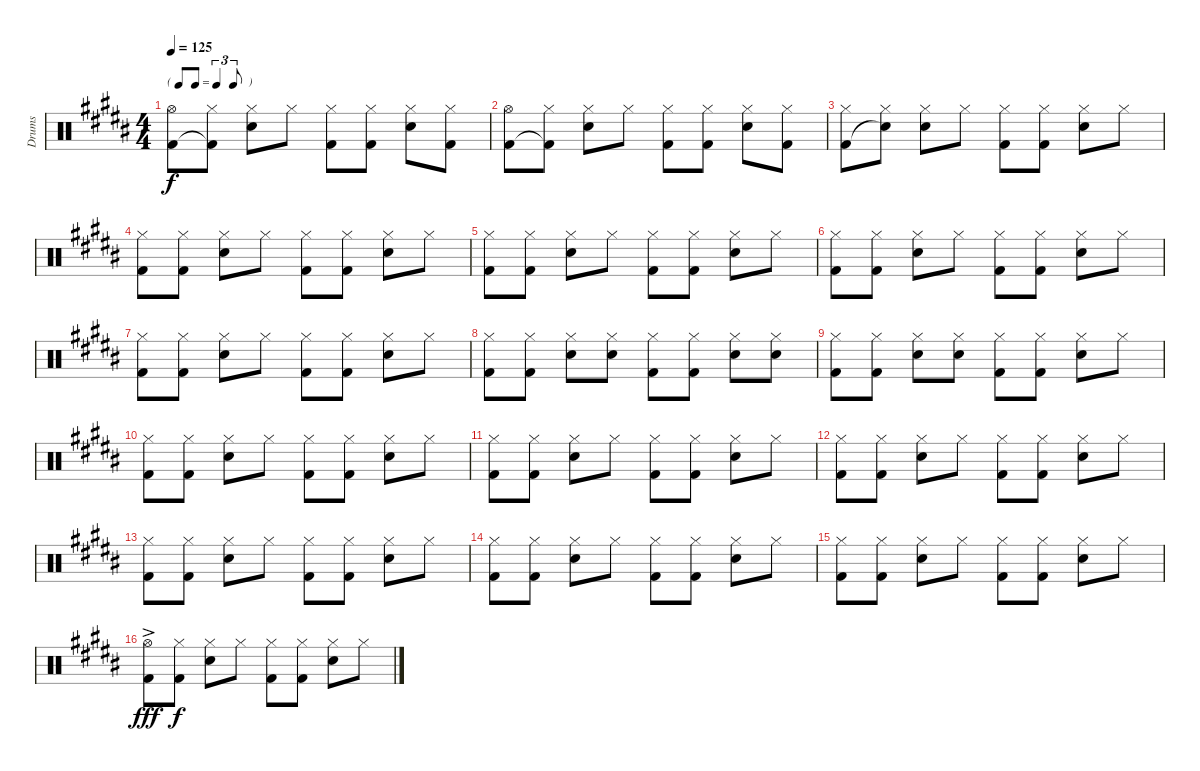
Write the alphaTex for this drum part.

\track ("Drums" "Drums") {instrument percussion}
\staff {score}
\articulation defaults
\ts (4 4)
\tf triplet8th
\tempo 125
\clef neutral
\ks b
("Hi-Hat (open)" "Kick (hit) 2").8{dy f} ("Hi-Hat (closed)" "Kick (hit) 2"{t}).8 ("Hi-Hat (closed)" "Snare (hit) 2").8 "Hi-Hat (closed)".8 ("Hi-Hat (closed)" "Kick (hit) 2").8 ("Hi-Hat (closed)" "Kick (hit) 2").8 ("Hi-Hat (closed)" "Snare (hit) 2").8 ("Hi-Hat (closed)" "Kick (hit) 2").8 |
("Hi-Hat (open)" "Kick (hit) 2").8 ("Hi-Hat (closed)" "Kick (hit) 2"{t}).8 ("Hi-Hat (closed)" "Snare (hit) 2").8 "Hi-Hat (closed)".8 ("Hi-Hat (closed)" "Kick (hit) 2").8 ("Hi-Hat (closed)" "Kick (hit) 2").8 ("Hi-Hat (closed)" "Snare (hit) 2").8 ("Hi-Hat (closed)" "Kick (hit) 2").8 |
("Hi-Hat (closed)" "Kick (hit) 2").8 ("Hi-Hat (closed)" "Snare (hit)"{t}).8 ("Hi-Hat (closed)" "Snare (hit) 2").8 "Hi-Hat (closed)".8 ("Hi-Hat (closed)" "Kick (hit) 2").8 ("Hi-Hat (closed)" "Kick (hit) 2").8 ("Hi-Hat (closed)" "Snare (hit) 2").8 "Hi-Hat (closed)".8 |
("Hi-Hat (closed)" "Kick (hit) 2").8 ("Hi-Hat (closed)" "Kick (hit) 2").8 ("Hi-Hat (closed)" "Snare (hit) 2").8 "Hi-Hat (closed)".8 ("Hi-Hat (closed)" "Kick (hit) 2").8 ("Hi-Hat (closed)" "Kick (hit) 2").8 ("Hi-Hat (closed)" "Snare (hit) 2").8 "Hi-Hat (closed)".8 |
("Hi-Hat (closed)" "Kick (hit) 2").8 ("Hi-Hat (closed)" "Kick (hit) 2").8 ("Hi-Hat (closed)" "Snare (hit) 2").8 "Hi-Hat (closed)".8 ("Hi-Hat (closed)" "Kick (hit) 2").8 ("Hi-Hat (closed)" "Kick (hit) 2").8 ("Hi-Hat (closed)" "Snare (hit) 2").8 "Hi-Hat (closed)".8 |
("Hi-Hat (closed)" "Kick (hit) 2").8 ("Hi-Hat (closed)" "Kick (hit) 2").8 ("Hi-Hat (closed)" "Snare (hit) 2").8 "Hi-Hat (closed)".8 ("Hi-Hat (closed)" "Kick (hit) 2").8 ("Hi-Hat (closed)" "Kick (hit) 2").8 ("Hi-Hat (closed)" "Snare (hit) 2").8 "Hi-Hat (closed)".8 |
("Hi-Hat (closed)" "Kick (hit) 2").8 ("Hi-Hat (closed)" "Kick (hit) 2").8 ("Hi-Hat (closed)" "Snare (hit) 2").8 "Hi-Hat (closed)".8 ("Hi-Hat (closed)" "Kick (hit) 2").8 ("Hi-Hat (closed)" "Kick (hit) 2").8 ("Hi-Hat (closed)" "Snare (hit) 2").8 "Hi-Hat (closed)".8 |
("Hi-Hat (closed)" "Kick (hit) 2").8 ("Hi-Hat (closed)" "Kick (hit) 2").8 ("Hi-Hat (closed)" "Snare (hit) 2").8 ("Hi-Hat (closed)" "Snare (hit) 2").8 ("Hi-Hat (closed)" "Kick (hit) 2").8 ("Hi-Hat (closed)" "Kick (hit) 2").8 ("Hi-Hat (closed)" "Snare (hit) 2").8 ("Hi-Hat (closed)" "Snare (hit) 2").8 |
("Hi-Hat (closed)" "Kick (hit) 2").8 ("Hi-Hat (closed)" "Kick (hit) 2").8 ("Hi-Hat (closed)" "Snare (hit) 2").8 ("Hi-Hat (closed)" "Snare (hit) 2").8 ("Hi-Hat (closed)" "Kick (hit) 2").8 ("Hi-Hat (closed)" "Kick (hit) 2").8 ("Hi-Hat (closed)" "Snare (hit) 2").8 "Hi-Hat (closed)".8 |
("Hi-Hat (closed)" "Kick (hit) 2").8 ("Hi-Hat (closed)" "Kick (hit) 2").8 ("Hi-Hat (closed)" "Snare (hit) 2").8 "Hi-Hat (closed)".8 ("Hi-Hat (closed)" "Kick (hit) 2").8 ("Hi-Hat (closed)" "Kick (hit) 2").8 ("Hi-Hat (closed)" "Snare (hit) 2").8 "Hi-Hat (closed)".8 |
("Hi-Hat (closed)" "Kick (hit) 2").8 ("Hi-Hat (closed)" "Kick (hit) 2").8 ("Hi-Hat (closed)" "Snare (hit) 2").8 "Hi-Hat (closed)".8 ("Hi-Hat (closed)" "Kick (hit) 2").8 ("Hi-Hat (closed)" "Kick (hit) 2").8 ("Hi-Hat (closed)" "Snare (hit) 2").8 "Hi-Hat (closed)".8 |
("Hi-Hat (closed)" "Kick (hit) 2").8 ("Hi-Hat (closed)" "Kick (hit) 2").8 ("Hi-Hat (closed)" "Snare (hit) 2").8 "Hi-Hat (closed)".8 ("Hi-Hat (closed)" "Kick (hit) 2").8 ("Hi-Hat (closed)" "Kick (hit) 2").8 ("Hi-Hat (closed)" "Snare (hit) 2").8 "Hi-Hat (closed)".8 |
("Hi-Hat (closed)" "Kick (hit) 2").8 ("Hi-Hat (closed)" "Kick (hit) 2").8 ("Hi-Hat (closed)" "Snare (hit) 2").8 "Hi-Hat (closed)".8 ("Hi-Hat (closed)" "Kick (hit) 2").8 ("Hi-Hat (closed)" "Kick (hit) 2").8 ("Hi-Hat (closed)" "Snare (hit) 2").8 "Hi-Hat (closed)".8 |
("Hi-Hat (closed)" "Kick (hit) 2").8 ("Hi-Hat (closed)" "Kick (hit) 2").8 ("Hi-Hat (closed)" "Snare (hit) 2").8 "Hi-Hat (closed)".8 ("Hi-Hat (closed)" "Kick (hit) 2").8 ("Hi-Hat (closed)" "Kick (hit) 2").8 ("Hi-Hat (closed)" "Snare (hit) 2").8 "Hi-Hat (closed)".8 |
("Hi-Hat (closed)" "Kick (hit) 2").8 ("Hi-Hat (closed)" "Kick (hit) 2").8 ("Hi-Hat (closed)" "Snare (hit) 2").8 "Hi-Hat (closed)".8 ("Hi-Hat (closed)" "Kick (hit) 2").8 ("Hi-Hat (closed)" "Kick (hit) 2").8 ("Hi-Hat (closed)" "Snare (hit) 2").8 "Hi-Hat (closed)".8 |
("Hi-Hat (open)"{ac} "Kick (hit) 2"{ac}).8{dy fff} ("Hi-Hat (closed)" "Kick (hit) 2").8{dy f} ("Hi-Hat (closed)" "Snare (hit) 2").8 "Hi-Hat (closed)".8 ("Hi-Hat (closed)" "Kick (hit) 2").8 ("Hi-Hat (closed)" "Kick (hit) 2").8 ("Hi-Hat (closed)" "Snare (hit) 2").8 "Hi-Hat (closed)".8
